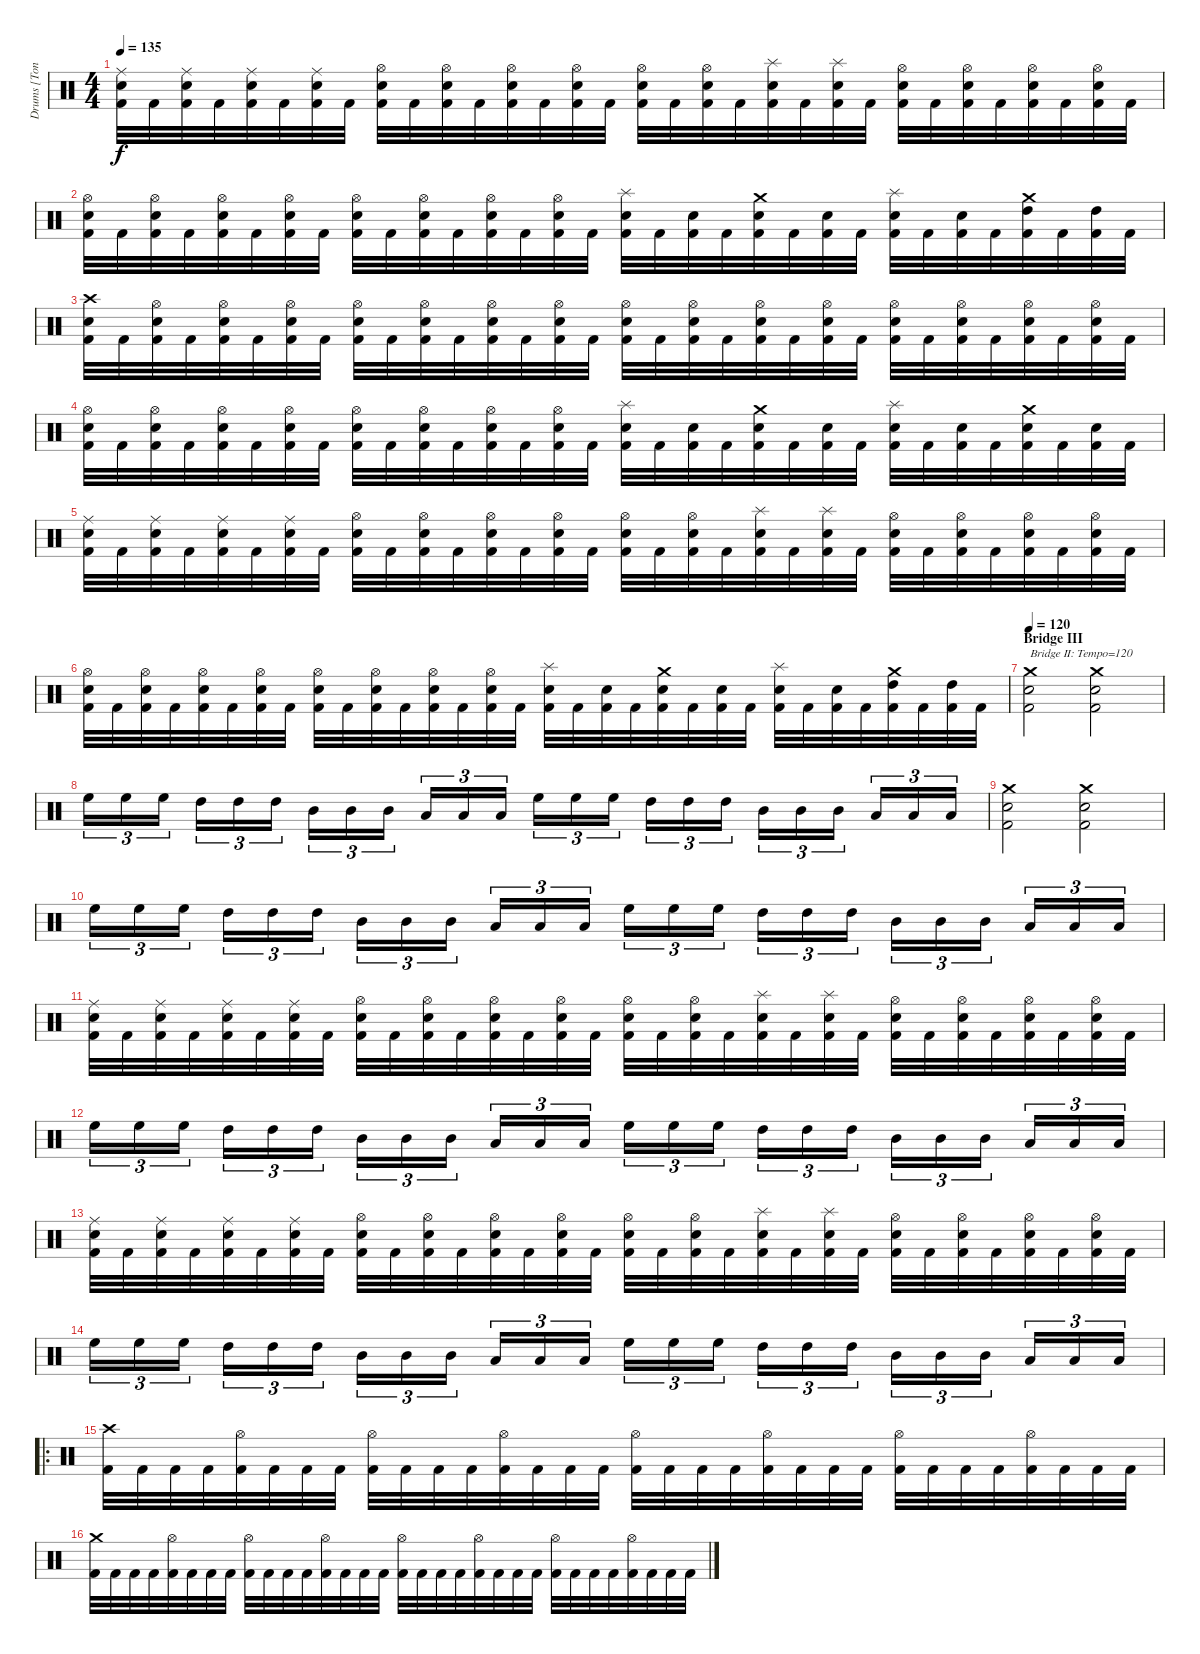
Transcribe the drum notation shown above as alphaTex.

\track ("Drums [Tony Laureano]" "Drums [Ton") {instrument percussion}
\staff {score}
\articulation defaults
\ts (4 4)
\tempo 135
\clef neutral
\ks c
("Ride (middle)" "Electric Snare (hit)" "Kick (hit) 2").32{dy f} "Kick (hit) 2".32 ("Ride (middle)" "Electric Snare (hit)" "Kick (hit) 2").32 "Kick (hit) 2".32 ("Ride (middle)" "Electric Snare (hit)" "Kick (hit) 2").32 "Kick (hit) 2".32 ("Ride (middle)" "Electric Snare (hit)" "Kick (hit) 2").32 "Kick (hit) 2".32 ("Hi-Hat (open)" "Electric Snare (hit)" "Kick (hit) 2").32 "Kick (hit) 2".32 ("Hi-Hat (open)" "Electric Snare (hit)" "Kick (hit) 2").32 "Kick (hit) 2".32 ("Hi-Hat (open)" "Electric Snare (hit)" "Kick (hit) 2").32 "Kick (hit) 2".32 ("Hi-Hat (open)" "Electric Snare (hit)" "Kick (hit) 2").32 "Kick (hit) 2".32 ("Hi-Hat (open)" "Electric Snare (hit)" "Kick (hit) 2").32 "Kick (hit) 2".32 ("Hi-Hat (open)" "Electric Snare (hit)" "Kick (hit) 2").32 "Kick (hit) 2".32 ("Splash (hit)" "Electric Snare (hit)" "Kick (hit) 2").32 "Kick (hit) 2".32 ("Splash (hit)" "Electric Snare (hit)" "Kick (hit) 2").32 "Kick (hit) 2".32 ("Hi-Hat (open)" "Electric Snare (hit)" "Kick (hit) 2").32 "Kick (hit) 2".32 ("Hi-Hat (open)" "Electric Snare (hit)" "Kick (hit) 2").32 "Kick (hit) 2".32 ("Hi-Hat (open)" "Electric Snare (hit)" "Kick (hit) 2").32 "Kick (hit) 2".32 ("Hi-Hat (open)" "Electric Snare (hit)" "Kick (hit) 2").32 "Kick (hit) 2".32 |
("Hi-Hat (open)" "Electric Snare (hit)" "Kick (hit) 2").32 "Kick (hit) 2".32 ("Hi-Hat (open)" "Electric Snare (hit)" "Kick (hit) 2").32 "Kick (hit) 2".32 ("Hi-Hat (open)" "Electric Snare (hit)" "Kick (hit) 2").32 "Kick (hit) 2".32 ("Hi-Hat (open)" "Electric Snare (hit)" "Kick (hit) 2").32 "Kick (hit) 2".32 ("Hi-Hat (open)" "Electric Snare (hit)" "Kick (hit) 2").32 "Kick (hit) 2".32 ("Hi-Hat (open)" "Electric Snare (hit)" "Kick (hit) 2").32 "Kick (hit) 2".32 ("Hi-Hat (open)" "Electric Snare (hit)" "Kick (hit) 2").32 "Kick (hit) 2".32 ("Hi-Hat (open)" "Electric Snare (hit)" "Kick (hit) 2").32 "Kick (hit) 2".32 ("Splash (hit)" "Electric Snare (hit)" "Kick (hit) 2").32 "Kick (hit) 2".32 ("Electric Snare (hit)" "Kick (hit) 2").32 "Kick (hit) 2".32 ("Crash medium (hit)" "Electric Snare (hit)" "Kick (hit) 2").32 "Kick (hit) 2".32 ("Electric Snare (hit)" "Kick (hit) 2").32 "Kick (hit) 2".32 ("Splash (hit)" "Electric Snare (hit)" "Kick (hit) 2").32 "Kick (hit) 2".32 ("Electric Snare (hit)" "Kick (hit) 2").32 "Kick (hit) 2".32 ("Crash medium (hit)" "High Tom (hit)" "Kick (hit) 2").32 "Kick (hit) 2".32 ("High Tom (hit)" "Kick (hit) 2").32 "Kick (hit) 2".32 |
("Crash high (hit)" "Electric Snare (hit)" "Kick (hit) 2").32 "Kick (hit) 2".32 ("Hi-Hat (open)" "Electric Snare (hit)" "Kick (hit) 2").32 "Kick (hit) 2".32 ("Hi-Hat (open)" "Electric Snare (hit)" "Kick (hit) 2").32 "Kick (hit) 2".32 ("Hi-Hat (open)" "Electric Snare (hit)" "Kick (hit) 2").32 "Kick (hit) 2".32 ("Hi-Hat (open)" "Electric Snare (hit)" "Kick (hit) 2").32 "Kick (hit) 2".32 ("Hi-Hat (open)" "Electric Snare (hit)" "Kick (hit) 2").32 "Kick (hit) 2".32 ("Hi-Hat (open)" "Electric Snare (hit)" "Kick (hit) 2").32 "Kick (hit) 2".32 ("Hi-Hat (open)" "Electric Snare (hit)" "Kick (hit) 2").32 "Kick (hit) 2".32 ("Hi-Hat (open)" "Electric Snare (hit)" "Kick (hit) 2").32 "Kick (hit) 2".32 ("Hi-Hat (open)" "Electric Snare (hit)" "Kick (hit) 2").32 "Kick (hit) 2".32 ("Hi-Hat (open)" "Electric Snare (hit)" "Kick (hit) 2").32 "Kick (hit) 2".32 ("Hi-Hat (open)" "Electric Snare (hit)" "Kick (hit) 2").32 "Kick (hit) 2".32 ("Hi-Hat (open)" "Electric Snare (hit)" "Kick (hit) 2").32 "Kick (hit) 2".32 ("Hi-Hat (open)" "Electric Snare (hit)" "Kick (hit) 2").32 "Kick (hit) 2".32 ("Hi-Hat (open)" "Electric Snare (hit)" "Kick (hit) 2").32 "Kick (hit) 2".32 ("Hi-Hat (open)" "Electric Snare (hit)" "Kick (hit) 2").32 "Kick (hit) 2".32 |
("Hi-Hat (open)" "Electric Snare (hit)" "Kick (hit) 2").32 "Kick (hit) 2".32 ("Hi-Hat (open)" "Electric Snare (hit)" "Kick (hit) 2").32 "Kick (hit) 2".32 ("Hi-Hat (open)" "Electric Snare (hit)" "Kick (hit) 2").32 "Kick (hit) 2".32 ("Hi-Hat (open)" "Electric Snare (hit)" "Kick (hit) 2").32 "Kick (hit) 2".32 ("Hi-Hat (open)" "Electric Snare (hit)" "Kick (hit) 2").32 "Kick (hit) 2".32 ("Hi-Hat (open)" "Electric Snare (hit)" "Kick (hit) 2").32 "Kick (hit) 2".32 ("Hi-Hat (open)" "Electric Snare (hit)" "Kick (hit) 2").32 "Kick (hit) 2".32 ("Hi-Hat (open)" "Electric Snare (hit)" "Kick (hit) 2").32 "Kick (hit) 2".32 ("Splash (hit)" "Electric Snare (hit)" "Kick (hit) 2").32 "Kick (hit) 2".32 ("Electric Snare (hit)" "Kick (hit) 2").32 "Kick (hit) 2".32 ("Crash medium (hit)" "Electric Snare (hit)" "Kick (hit) 2").32 "Kick (hit) 2".32 ("Electric Snare (hit)" "Kick (hit) 2").32 "Kick (hit) 2".32 ("Splash (hit)" "Electric Snare (hit)" "Kick (hit) 2").32 "Kick (hit) 2".32 ("Electric Snare (hit)" "Kick (hit) 2").32 "Kick (hit) 2".32 ("Crash medium (hit)" "Electric Snare (hit)" "Kick (hit) 2").32 "Kick (hit) 2".32 ("Electric Snare (hit)" "Kick (hit) 2").32 "Kick (hit) 2".32 |
("Ride (middle)" "Electric Snare (hit)" "Kick (hit) 2").32 "Kick (hit) 2".32 ("Ride (middle)" "Electric Snare (hit)" "Kick (hit) 2").32 "Kick (hit) 2".32 ("Ride (middle)" "Electric Snare (hit)" "Kick (hit) 2").32 "Kick (hit) 2".32 ("Ride (middle)" "Electric Snare (hit)" "Kick (hit) 2").32 "Kick (hit) 2".32 ("Hi-Hat (open)" "Electric Snare (hit)" "Kick (hit) 2").32 "Kick (hit) 2".32 ("Hi-Hat (open)" "Electric Snare (hit)" "Kick (hit) 2").32 "Kick (hit) 2".32 ("Hi-Hat (open)" "Electric Snare (hit)" "Kick (hit) 2").32 "Kick (hit) 2".32 ("Hi-Hat (open)" "Electric Snare (hit)" "Kick (hit) 2").32 "Kick (hit) 2".32 ("Hi-Hat (open)" "Electric Snare (hit)" "Kick (hit) 2").32 "Kick (hit) 2".32 ("Hi-Hat (open)" "Electric Snare (hit)" "Kick (hit) 2").32 "Kick (hit) 2".32 ("Splash (hit)" "Electric Snare (hit)" "Kick (hit) 2").32 "Kick (hit) 2".32 ("Splash (hit)" "Electric Snare (hit)" "Kick (hit) 2").32 "Kick (hit) 2".32 ("Hi-Hat (open)" "Electric Snare (hit)" "Kick (hit) 2").32 "Kick (hit) 2".32 ("Hi-Hat (open)" "Electric Snare (hit)" "Kick (hit) 2").32 "Kick (hit) 2".32 ("Hi-Hat (open)" "Electric Snare (hit)" "Kick (hit) 2").32 "Kick (hit) 2".32 ("Hi-Hat (open)" "Electric Snare (hit)" "Kick (hit) 2").32 "Kick (hit) 2".32 |
("Hi-Hat (open)" "Electric Snare (hit)" "Kick (hit) 2").32 "Kick (hit) 2".32 ("Hi-Hat (open)" "Electric Snare (hit)" "Kick (hit) 2").32 "Kick (hit) 2".32 ("Hi-Hat (open)" "Electric Snare (hit)" "Kick (hit) 2").32 "Kick (hit) 2".32 ("Hi-Hat (open)" "Electric Snare (hit)" "Kick (hit) 2").32 "Kick (hit) 2".32 ("Hi-Hat (open)" "Electric Snare (hit)" "Kick (hit) 2").32 "Kick (hit) 2".32 ("Hi-Hat (open)" "Electric Snare (hit)" "Kick (hit) 2").32 "Kick (hit) 2".32 ("Hi-Hat (open)" "Electric Snare (hit)" "Kick (hit) 2").32 "Kick (hit) 2".32 ("Hi-Hat (open)" "Electric Snare (hit)" "Kick (hit) 2").32 "Kick (hit) 2".32 ("Splash (hit)" "Electric Snare (hit)" "Kick (hit) 2").32 "Kick (hit) 2".32 ("Electric Snare (hit)" "Kick (hit) 2").32 "Kick (hit) 2".32 ("Crash medium (hit)" "Electric Snare (hit)" "Kick (hit) 2").32 "Kick (hit) 2".32 ("Electric Snare (hit)" "Kick (hit) 2").32 "Kick (hit) 2".32 ("Splash (hit)" "Electric Snare (hit)" "Kick (hit) 2").32 "Kick (hit) 2".32 ("Electric Snare (hit)" "Kick (hit) 2").32 "Kick (hit) 2".32 ("Crash medium (hit)" "High Tom (hit)" "Kick (hit) 2").32 "Kick (hit) 2".32 ("High Tom (hit)" "Kick (hit) 2").32 "Kick (hit) 2".32 |
\section ("" "Bridge III")
\tempo 120
("Crash medium (hit)" "Electric Snare (hit)" "Kick (hit) 2").2{txt "Bridge II: Tempo=120"} ("Crash medium (hit)" "Electric Snare (hit)" "Kick (hit) 2").2 |
"High Floor Tom (hit)".16{tu (3 2)} "High Floor Tom (hit)".16{tu (3 2)} "High Floor Tom (hit)".16{tu (3 2)} "High Tom (hit)".16{tu (3 2)} "High Tom (hit)".16{tu (3 2)} "High Tom (hit)".16{tu (3 2)} "Mid Tom (hit)".16{tu (3 2)} "Mid Tom (hit)".16{tu (3 2)} "Mid Tom (hit)".16{tu (3 2)} "Low Tom (hit)".16{tu (3 2)} "Low Tom (hit)".16{tu (3 2)} "Low Tom (hit)".16{tu (3 2)} "High Floor Tom (hit)".16{tu (3 2)} "High Floor Tom (hit)".16{tu (3 2)} "High Floor Tom (hit)".16{tu (3 2)} "High Tom (hit)".16{tu (3 2)} "High Tom (hit)".16{tu (3 2)} "High Tom (hit)".16{tu (3 2)} "Mid Tom (hit)".16{tu (3 2)} "Mid Tom (hit)".16{tu (3 2)} "Mid Tom (hit)".16{tu (3 2)} "Low Tom (hit)".16{tu (3 2)} "Low Tom (hit)".16{tu (3 2)} "Low Tom (hit)".16{tu (3 2)} |
("Crash medium (hit)" "Electric Snare (hit)" "Kick (hit) 2").2 ("Crash medium (hit)" "Electric Snare (hit)" "Kick (hit) 2").2 |
"High Floor Tom (hit)".16{tu (3 2)} "High Floor Tom (hit)".16{tu (3 2)} "High Floor Tom (hit)".16{tu (3 2)} "High Tom (hit)".16{tu (3 2)} "High Tom (hit)".16{tu (3 2)} "High Tom (hit)".16{tu (3 2)} "Mid Tom (hit)".16{tu (3 2)} "Mid Tom (hit)".16{tu (3 2)} "Mid Tom (hit)".16{tu (3 2)} "Low Tom (hit)".16{tu (3 2)} "Low Tom (hit)".16{tu (3 2)} "Low Tom (hit)".16{tu (3 2)} "High Floor Tom (hit)".16{tu (3 2)} "High Floor Tom (hit)".16{tu (3 2)} "High Floor Tom (hit)".16{tu (3 2)} "High Tom (hit)".16{tu (3 2)} "High Tom (hit)".16{tu (3 2)} "High Tom (hit)".16{tu (3 2)} "Mid Tom (hit)".16{tu (3 2)} "Mid Tom (hit)".16{tu (3 2)} "Mid Tom (hit)".16{tu (3 2)} "Low Tom (hit)".16{tu (3 2)} "Low Tom (hit)".16{tu (3 2)} "Low Tom (hit)".16{tu (3 2)} |
("Ride (middle)" "Electric Snare (hit)" "Kick (hit) 2").32 "Kick (hit) 2".32 ("Ride (middle)" "Electric Snare (hit)" "Kick (hit) 2").32 "Kick (hit) 2".32 ("Ride (middle)" "Electric Snare (hit)" "Kick (hit) 2").32 "Kick (hit) 2".32 ("Ride (middle)" "Electric Snare (hit)" "Kick (hit) 2").32 "Kick (hit) 2".32 ("Hi-Hat (open)" "Electric Snare (hit)" "Kick (hit) 2").32 "Kick (hit) 2".32 ("Hi-Hat (open)" "Electric Snare (hit)" "Kick (hit) 2").32 "Kick (hit) 2".32 ("Hi-Hat (open)" "Electric Snare (hit)" "Kick (hit) 2").32 "Kick (hit) 2".32 ("Hi-Hat (open)" "Electric Snare (hit)" "Kick (hit) 2").32 "Kick (hit) 2".32 ("Hi-Hat (open)" "Electric Snare (hit)" "Kick (hit) 2").32 "Kick (hit) 2".32 ("Hi-Hat (open)" "Electric Snare (hit)" "Kick (hit) 2").32 "Kick (hit) 2".32 ("Splash (hit)" "Electric Snare (hit)" "Kick (hit) 2").32 "Kick (hit) 2".32 ("Splash (hit)" "Electric Snare (hit)" "Kick (hit) 2").32 "Kick (hit) 2".32 ("Hi-Hat (open)" "Electric Snare (hit)" "Kick (hit) 2").32 "Kick (hit) 2".32 ("Hi-Hat (open)" "Electric Snare (hit)" "Kick (hit) 2").32 "Kick (hit) 2".32 ("Hi-Hat (open)" "Electric Snare (hit)" "Kick (hit) 2").32 "Kick (hit) 2".32 ("Hi-Hat (open)" "Electric Snare (hit)" "Kick (hit) 2").32 "Kick (hit) 2".32 |
"High Floor Tom (hit)".16{tu (3 2)} "High Floor Tom (hit)".16{tu (3 2)} "High Floor Tom (hit)".16{tu (3 2)} "High Tom (hit)".16{tu (3 2)} "High Tom (hit)".16{tu (3 2)} "High Tom (hit)".16{tu (3 2)} "Mid Tom (hit)".16{tu (3 2)} "Mid Tom (hit)".16{tu (3 2)} "Mid Tom (hit)".16{tu (3 2)} "Low Tom (hit)".16{tu (3 2)} "Low Tom (hit)".16{tu (3 2)} "Low Tom (hit)".16{tu (3 2)} "High Floor Tom (hit)".16{tu (3 2)} "High Floor Tom (hit)".16{tu (3 2)} "High Floor Tom (hit)".16{tu (3 2)} "High Tom (hit)".16{tu (3 2)} "High Tom (hit)".16{tu (3 2)} "High Tom (hit)".16{tu (3 2)} "Mid Tom (hit)".16{tu (3 2)} "Mid Tom (hit)".16{tu (3 2)} "Mid Tom (hit)".16{tu (3 2)} "Low Tom (hit)".16{tu (3 2)} "Low Tom (hit)".16{tu (3 2)} "Low Tom (hit)".16{tu (3 2)} |
("Ride (middle)" "Electric Snare (hit)" "Kick (hit) 2").32 "Kick (hit) 2".32 ("Ride (middle)" "Electric Snare (hit)" "Kick (hit) 2").32 "Kick (hit) 2".32 ("Ride (middle)" "Electric Snare (hit)" "Kick (hit) 2").32 "Kick (hit) 2".32 ("Ride (middle)" "Electric Snare (hit)" "Kick (hit) 2").32 "Kick (hit) 2".32 ("Hi-Hat (open)" "Electric Snare (hit)" "Kick (hit) 2").32 "Kick (hit) 2".32 ("Hi-Hat (open)" "Electric Snare (hit)" "Kick (hit) 2").32 "Kick (hit) 2".32 ("Hi-Hat (open)" "Electric Snare (hit)" "Kick (hit) 2").32 "Kick (hit) 2".32 ("Hi-Hat (open)" "Electric Snare (hit)" "Kick (hit) 2").32 "Kick (hit) 2".32 ("Hi-Hat (open)" "Electric Snare (hit)" "Kick (hit) 2").32 "Kick (hit) 2".32 ("Hi-Hat (open)" "Electric Snare (hit)" "Kick (hit) 2").32 "Kick (hit) 2".32 ("Splash (hit)" "Electric Snare (hit)" "Kick (hit) 2").32 "Kick (hit) 2".32 ("Splash (hit)" "Electric Snare (hit)" "Kick (hit) 2").32 "Kick (hit) 2".32 ("Hi-Hat (open)" "Electric Snare (hit)" "Kick (hit) 2").32 "Kick (hit) 2".32 ("Hi-Hat (open)" "Electric Snare (hit)" "Kick (hit) 2").32 "Kick (hit) 2".32 ("Hi-Hat (open)" "Electric Snare (hit)" "Kick (hit) 2").32 "Kick (hit) 2".32 ("Hi-Hat (open)" "Electric Snare (hit)" "Kick (hit) 2").32 "Kick (hit) 2".32 |
"High Floor Tom (hit)".16{tu (3 2)} "High Floor Tom (hit)".16{tu (3 2)} "High Floor Tom (hit)".16{tu (3 2)} "High Tom (hit)".16{tu (3 2)} "High Tom (hit)".16{tu (3 2)} "High Tom (hit)".16{tu (3 2)} "Mid Tom (hit)".16{tu (3 2)} "Mid Tom (hit)".16{tu (3 2)} "Mid Tom (hit)".16{tu (3 2)} "Low Tom (hit)".16{tu (3 2)} "Low Tom (hit)".16{tu (3 2)} "Low Tom (hit)".16{tu (3 2)} "High Floor Tom (hit)".16{tu (3 2)} "High Floor Tom (hit)".16{tu (3 2)} "High Floor Tom (hit)".16{tu (3 2)} "High Tom (hit)".16{tu (3 2)} "High Tom (hit)".16{tu (3 2)} "High Tom (hit)".16{tu (3 2)} "Mid Tom (hit)".16{tu (3 2)} "Mid Tom (hit)".16{tu (3 2)} "Mid Tom (hit)".16{tu (3 2)} "Low Tom (hit)".16{tu (3 2)} "Low Tom (hit)".16{tu (3 2)} "Low Tom (hit)".16{tu (3 2)} |
\ro
("Crash high (hit)" "Kick (hit) 2").32 "Kick (hit) 2".32 "Kick (hit) 2".32 "Kick (hit) 2".32 ("Hi-Hat (open)" "Kick (hit) 2").32 "Kick (hit) 2".32 "Kick (hit) 2".32 "Kick (hit) 2".32 ("Hi-Hat (open)" "Kick (hit) 2").32 "Kick (hit) 2".32 "Kick (hit) 2".32 "Kick (hit) 2".32 ("Hi-Hat (open)" "Kick (hit) 2").32 "Kick (hit) 2".32 "Kick (hit) 2".32 "Kick (hit) 2".32 ("Hi-Hat (open)" "Kick (hit) 2").32 "Kick (hit) 2".32 "Kick (hit) 2".32 "Kick (hit) 2".32 ("Hi-Hat (open)" "Kick (hit) 2").32 "Kick (hit) 2".32 "Kick (hit) 2".32 "Kick (hit) 2".32 ("Hi-Hat (open)" "Kick (hit) 2").32 "Kick (hit) 2".32 "Kick (hit) 2".32 "Kick (hit) 2".32 ("Hi-Hat (open)" "Kick (hit) 2").32 "Kick (hit) 2".32 "Kick (hit) 2".32 "Kick (hit) 2".32 |
("Crash medium (hit)" "Kick (hit) 2").32 "Kick (hit) 2".32 "Kick (hit) 2".32 "Kick (hit) 2".32 ("Hi-Hat (open)" "Kick (hit) 2").32 "Kick (hit) 2".32 "Kick (hit) 2".32 "Kick (hit) 2".32 ("Hi-Hat (open)" "Kick (hit) 2").32 "Kick (hit) 2".32 "Kick (hit) 2".32 "Kick (hit) 2".32 ("Hi-Hat (open)" "Kick (hit) 2").32 "Kick (hit) 2".32 "Kick (hit) 2".32 "Kick (hit) 2".32 ("Hi-Hat (open)" "Kick (hit) 2").32 "Kick (hit) 2".32 "Kick (hit) 2".32 "Kick (hit) 2".32 ("Hi-Hat (open)" "Kick (hit) 2").32 "Kick (hit) 2".32 "Kick (hit) 2".32 "Kick (hit) 2".32 ("Hi-Hat (open)" "Kick (hit) 2").32 "Kick (hit) 2".32 "Kick (hit) 2".32 "Kick (hit) 2".32 ("Hi-Hat (open)" "Kick (hit) 2").32 "Kick (hit) 2".32 "Kick (hit) 2".32 "Kick (hit) 2".32
